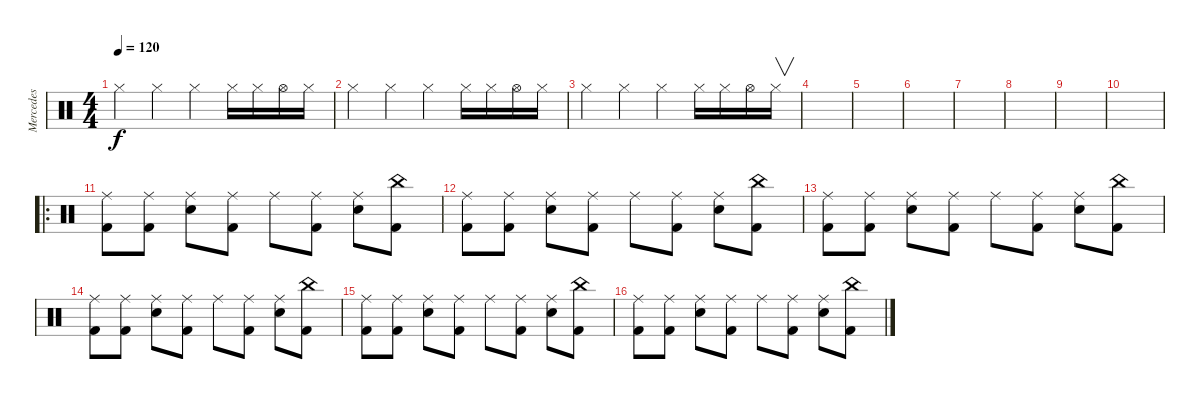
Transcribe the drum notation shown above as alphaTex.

\track ("Mercedes" "Mercedes") {instrument percussion}
\staff {score}
\articulation defaults
\ts (4 4)
\tempo 120
\clef neutral
\ks c "Hi-Hat (closed)".4{dy f} "Hi-Hat (closed)".4 "Hi-Hat (closed)".4 "Hi-Hat (closed)".16 "Hi-Hat (closed)".16 "Hi-Hat (open)".16 "Hi-Hat (closed)".16
|
"Hi-Hat (closed)".4 "Hi-Hat (closed)".4 "Hi-Hat (closed)".4 "Hi-Hat (closed)".16 "Hi-Hat (closed)".16 "Hi-Hat (open)".16 "Hi-Hat (closed)".16 |
"Hi-Hat (closed)".4 "Hi-Hat (closed)".4 "Hi-Hat (closed)".4 "Hi-Hat (closed)".16 "Hi-Hat (closed)".16 "Hi-Hat (open)".16 "Hi-Hat (closed)".16{v} |
|
|
|
|
|
|
|
\ro
("Ride (middle)" "Kick (hit) 2").8 ("Ride (middle)" "Kick (hit) 2").8 ("Ride (middle)" "Snare (hit) 2").8 ("Ride (middle)" "Kick (hit) 2").8 "Ride (middle)".8 ("Ride (middle)" "Kick (hit) 2").8 ("Ride (middle)" "Snare (hit) 2").8 ("China (hit)" "Kick (hit) 2").8 |
("Ride (middle)" "Kick (hit) 2").8 ("Ride (middle)" "Kick (hit) 2").8 ("Ride (middle)" "Snare (hit) 2").8 ("Ride (middle)" "Kick (hit) 2").8 "Ride (middle)".8 ("Ride (middle)" "Kick (hit) 2").8 ("Ride (middle)" "Snare (hit) 2").8 ("China (hit)" "Kick (hit) 2").8 |
("Ride (middle)" "Kick (hit) 2").8 ("Ride (middle)" "Kick (hit) 2").8 ("Ride (middle)" "Snare (hit) 2").8 ("Ride (middle)" "Kick (hit) 2").8 "Ride (middle)".8 ("Ride (middle)" "Kick (hit) 2").8 ("Ride (middle)" "Snare (hit) 2").8 ("China (hit)" "Kick (hit) 2").8 |
("Ride (middle)" "Kick (hit) 2").8 ("Ride (middle)" "Kick (hit) 2").8 ("Ride (middle)" "Snare (hit) 2").8 ("Ride (middle)" "Kick (hit) 2").8 "Ride (middle)".8 ("Ride (middle)" "Kick (hit) 2").8 ("Ride (middle)" "Snare (hit) 2").8 ("China (hit)" "Kick (hit) 2").8 |
("Ride (middle)" "Kick (hit) 2").8 ("Ride (middle)" "Kick (hit) 2").8 ("Ride (middle)" "Snare (hit) 2").8 ("Ride (middle)" "Kick (hit) 2").8 "Ride (middle)".8 ("Ride (middle)" "Kick (hit) 2").8 ("Ride (middle)" "Snare (hit) 2").8 ("China (hit)" "Kick (hit) 2").8 |
("Ride (middle)" "Kick (hit) 2").8 ("Ride (middle)" "Kick (hit) 2").8 ("Ride (middle)" "Snare (hit) 2").8 ("Ride (middle)" "Kick (hit) 2").8 "Ride (middle)".8 ("Ride (middle)" "Kick (hit) 2").8 ("Ride (middle)" "Snare (hit) 2").8 ("China (hit)" "Kick (hit) 2").8
